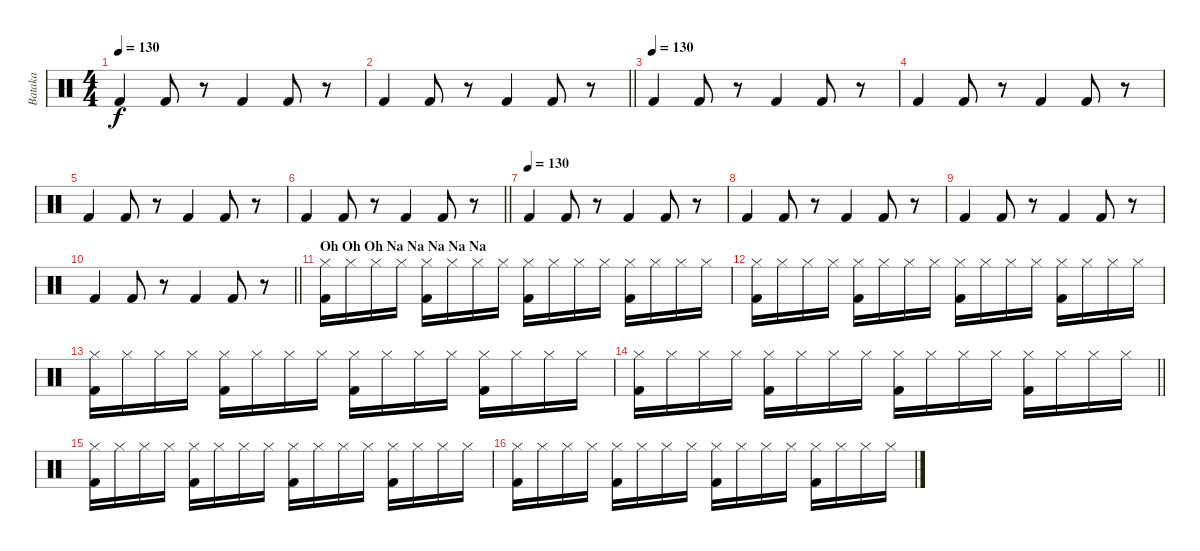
\track ("Bataka" "Bataka") {instrument percussion}
\staff {score}
\articulation defaults
\ts (4 4)
\tempo 130
\clef neutral
\ks c "Kick (hit) 2".4{dy f} "Kick (hit) 2".8
r.8 "Kick (hit) 2".4 "Kick (hit) 2".8 r.8 |
\barLineRight lightlight "Kick (hit) 2".4 "Kick (hit) 2".8
r.8 "Kick (hit) 2".4 "Kick (hit) 2".8 r.8 |
\tempo (130)
"Kick (hit) 2".4 "Kick (hit) 2".8 r.8 "Kick (hit) 2".4 "Kick (hit) 2".8 r.8 |
"Kick (hit) 2".4 "Kick (hit) 2".8 r.8 "Kick (hit) 2".4 "Kick (hit) 2".8 r.8 |
"Kick (hit) 2".4 "Kick (hit) 2".8 r.8 "Kick (hit) 2".4 "Kick (hit) 2".8 r.8 |
\barLineRight lightlight "Kick (hit) 2".4 "Kick (hit) 2".8
r.8 "Kick (hit) 2".4 "Kick (hit) 2".8 r.8 |
\tempo (130)
"Kick (hit) 2".4 "Kick (hit) 2".8 r.8 "Kick (hit) 2".4 "Kick (hit) 2".8 r.8 |
"Kick (hit) 2".4 "Kick (hit) 2".8 r.8 "Kick (hit) 2".4 "Kick (hit) 2".8 r.8 |
"Kick (hit) 2".4 "Kick (hit) 2".8 r.8 "Kick (hit) 2".4 "Kick (hit) 2".8 r.8 |
\barLineRight lightlight "Kick (hit) 2".4 "Kick (hit) 2".8
r.8 "Kick (hit) 2".4 "Kick (hit) 2".8 r.8 |
\section ("" "Oh Oh Oh Na Na Na Na Na")
("Hi-Hat (closed)" "Kick (hit) 2").16 "Hi-Hat (closed)".16 "Hi-Hat (closed)".16 "Hi-Hat (closed)".16 ("Hi-Hat (closed)" "Kick (hit) 2").16 "Hi-Hat (closed)".16 "Hi-Hat (closed)".16 "Hi-Hat (closed)".16 ("Hi-Hat (closed)" "Kick (hit) 2").16 "Hi-Hat (closed)".16 "Hi-Hat (closed)".16 "Hi-Hat (closed)".16 ("Hi-Hat (closed)" "Kick (hit) 2").16 "Hi-Hat (closed)".16 "Hi-Hat (closed)".16 "Hi-Hat (closed)".16 |
("Hi-Hat (closed)" "Kick (hit) 2").16 "Hi-Hat (closed)".16 "Hi-Hat (closed)".16 "Hi-Hat (closed)".16 ("Hi-Hat (closed)" "Kick (hit) 2").16 "Hi-Hat (closed)".16 "Hi-Hat (closed)".16 "Hi-Hat (closed)".16 ("Hi-Hat (closed)" "Kick (hit) 2").16 "Hi-Hat (closed)".16 "Hi-Hat (closed)".16 "Hi-Hat (closed)".16 ("Hi-Hat (closed)" "Kick (hit) 2").16 "Hi-Hat (closed)".16 "Hi-Hat (closed)".16 "Hi-Hat (closed)".16 |
("Hi-Hat (closed)" "Kick (hit) 2").16 "Hi-Hat (closed)".16 "Hi-Hat (closed)".16 "Hi-Hat (closed)".16 ("Hi-Hat (closed)" "Kick (hit) 2").16 "Hi-Hat (closed)".16 "Hi-Hat (closed)".16 "Hi-Hat (closed)".16 ("Hi-Hat (closed)" "Kick (hit) 2").16 "Hi-Hat (closed)".16 "Hi-Hat (closed)".16 "Hi-Hat (closed)".16 ("Hi-Hat (closed)" "Kick (hit) 2").16 "Hi-Hat (closed)".16 "Hi-Hat (closed)".16 "Hi-Hat (closed)".16 |
\barLineRight lightlight
("Hi-Hat (closed)" "Kick (hit) 2").16 "Hi-Hat (closed)".16 "Hi-Hat (closed)".16 "Hi-Hat (closed)".16 ("Hi-Hat (closed)" "Kick (hit) 2").16 "Hi-Hat (closed)".16 "Hi-Hat (closed)".16 "Hi-Hat (closed)".16 ("Hi-Hat (closed)" "Kick (hit) 2").16 "Hi-Hat (closed)".16 "Hi-Hat (closed)".16 "Hi-Hat (closed)".16 ("Hi-Hat (closed)" "Kick (hit) 2").16 "Hi-Hat (closed)".16 "Hi-Hat (closed)".16 "Hi-Hat (closed)".16 |
("Hi-Hat (closed)" "Kick (hit) 2").16 "Hi-Hat (closed)".16 "Hi-Hat (closed)".16 "Hi-Hat (closed)".16 ("Hi-Hat (closed)" "Kick (hit) 2").16 "Hi-Hat (closed)".16 "Hi-Hat (closed)".16 "Hi-Hat (closed)".16 ("Hi-Hat (closed)" "Kick (hit) 2").16 "Hi-Hat (closed)".16 "Hi-Hat (closed)".16 "Hi-Hat (closed)".16 ("Hi-Hat (closed)" "Kick (hit) 2").16 "Hi-Hat (closed)".16 "Hi-Hat (closed)".16 "Hi-Hat (closed)".16 |
("Hi-Hat (closed)" "Kick (hit) 2").16 "Hi-Hat (closed)".16 "Hi-Hat (closed)".16 "Hi-Hat (closed)".16 ("Hi-Hat (closed)" "Kick (hit) 2").16 "Hi-Hat (closed)".16 "Hi-Hat (closed)".16 "Hi-Hat (closed)".16 ("Hi-Hat (closed)" "Kick (hit) 2").16 "Hi-Hat (closed)".16 "Hi-Hat (closed)".16 "Hi-Hat (closed)".16 ("Hi-Hat (closed)" "Kick (hit) 2").16 "Hi-Hat (closed)".16 "Hi-Hat (closed)".16 "Hi-Hat (closed)".16
